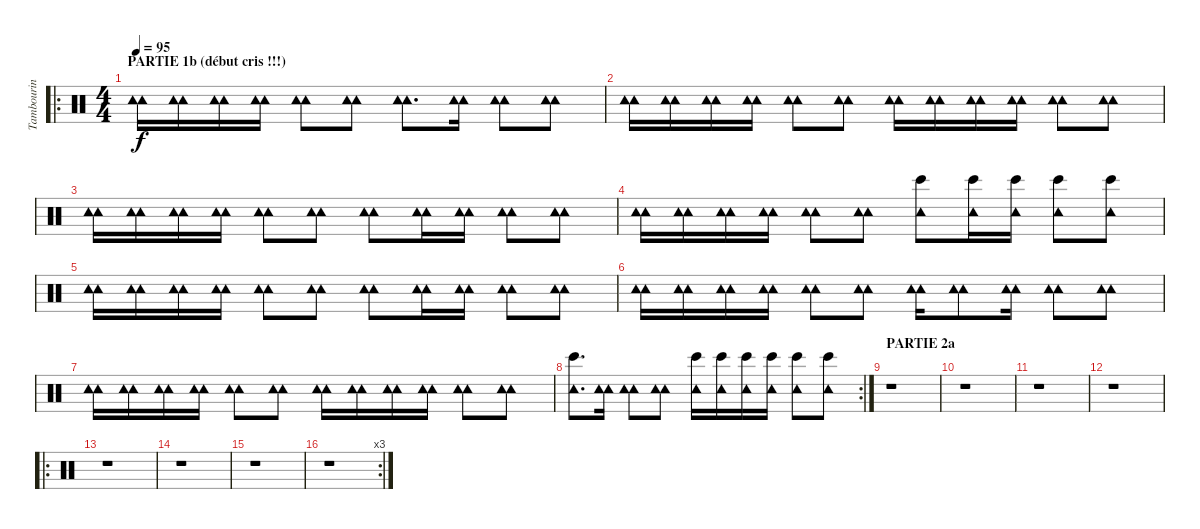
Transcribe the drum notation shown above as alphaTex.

\track ("Tambourin" "Tambourin") {instrument percussion}
\staff {score}
\articulation defaults
\ro
\ts (4 4)
\section ("" "PARTIE 1b (début cris !!!)")
\tempo 95
\clef neutral
\ks c
("Tambourine (hit)" "Tambourine (hit)").16{dy f} ("Tambourine (hit)" "Tambourine (hit)").16 ("Tambourine (hit)" "Tambourine (hit)").16 ("Tambourine (hit)" "Tambourine (hit)").16 ("Tambourine (hit)" "Tambourine (hit)").8 ("Tambourine (hit)" "Tambourine (hit)").8 ("Tambourine (hit)" "Tambourine (hit)").8{d} ("Tambourine (hit)" "Tambourine (hit)").16 ("Tambourine (hit)" "Tambourine (hit)").8 ("Tambourine (hit)" "Tambourine (hit)").8 |
("Tambourine (hit)" "Tambourine (hit)").16 ("Tambourine (hit)" "Tambourine (hit)").16 ("Tambourine (hit)" "Tambourine (hit)").16 ("Tambourine (hit)" "Tambourine (hit)").16 ("Tambourine (hit)" "Tambourine (hit)").8 ("Tambourine (hit)" "Tambourine (hit)").8 ("Tambourine (hit)" "Tambourine (hit)").16 ("Tambourine (hit)" "Tambourine (hit)").16 ("Tambourine (hit)" "Tambourine (hit)").16 ("Tambourine (hit)" "Tambourine (hit)").16 ("Tambourine (hit)" "Tambourine (hit)").8 ("Tambourine (hit)" "Tambourine (hit)").8 |
("Tambourine (hit)" "Tambourine (hit)").16 ("Tambourine (hit)" "Tambourine (hit)").16 ("Tambourine (hit)" "Tambourine (hit)").16 ("Tambourine (hit)" "Tambourine (hit)").16 ("Tambourine (hit)" "Tambourine (hit)").8 ("Tambourine (hit)" "Tambourine (hit)").8 ("Tambourine (hit)" "Tambourine (hit)").8 ("Tambourine (hit)" "Tambourine (hit)").16 ("Tambourine (hit)" "Tambourine (hit)").16 ("Tambourine (hit)" "Tambourine (hit)").8 ("Tambourine (hit)" "Tambourine (hit)").8 |
("Tambourine (hit)" "Tambourine (hit)").16 ("Tambourine (hit)" "Tambourine (hit)").16 ("Tambourine (hit)" "Tambourine (hit)").16 ("Tambourine (hit)" "Tambourine (hit)").16 ("Tambourine (hit)" "Tambourine (hit)").8 ("Tambourine (hit)" "Tambourine (hit)").8 ("Tambourine (hit)" "Bongo High (hit)").8 ("Tambourine (hit)" "Bongo High (hit)").16 ("Tambourine (hit)" "Bongo High (hit)").16 ("Tambourine (hit)" "Bongo High (hit)").8 ("Tambourine (hit)" "Bongo High (hit)").8 |
("Tambourine (hit)" "Tambourine (hit)").16 ("Tambourine (hit)" "Tambourine (hit)").16 ("Tambourine (hit)" "Tambourine (hit)").16 ("Tambourine (hit)" "Tambourine (hit)").16 ("Tambourine (hit)" "Tambourine (hit)").8 ("Tambourine (hit)" "Tambourine (hit)").8 ("Tambourine (hit)" "Tambourine (hit)").8 ("Tambourine (hit)" "Tambourine (hit)").16 ("Tambourine (hit)" "Tambourine (hit)").16 ("Tambourine (hit)" "Tambourine (hit)").8 ("Tambourine (hit)" "Tambourine (hit)").8 |
("Tambourine (hit)" "Tambourine (hit)").16 ("Tambourine (hit)" "Tambourine (hit)").16 ("Tambourine (hit)" "Tambourine (hit)").16 ("Tambourine (hit)" "Tambourine (hit)").16 ("Tambourine (hit)" "Tambourine (hit)").8 ("Tambourine (hit)" "Tambourine (hit)").8 ("Tambourine (hit)" "Tambourine (hit)").16 ("Tambourine (hit)" "Tambourine (hit)").8 ("Tambourine (hit)" "Tambourine (hit)").16 ("Tambourine (hit)" "Tambourine (hit)").8 ("Tambourine (hit)" "Tambourine (hit)").8 |
("Tambourine (hit)" "Tambourine (hit)").16 ("Tambourine (hit)" "Tambourine (hit)").16 ("Tambourine (hit)" "Tambourine (hit)").16 ("Tambourine (hit)" "Tambourine (hit)").16 ("Tambourine (hit)" "Tambourine (hit)").8 ("Tambourine (hit)" "Tambourine (hit)").8 ("Tambourine (hit)" "Tambourine (hit)").16 ("Tambourine (hit)" "Tambourine (hit)").16 ("Tambourine (hit)" "Tambourine (hit)").16 ("Tambourine (hit)" "Tambourine (hit)").16 ("Tambourine (hit)" "Tambourine (hit)").8 ("Tambourine (hit)" "Tambourine (hit)").8 |
\rc 2
("Tambourine (hit)" "Bongo High (hit)").8{d} ("Tambourine (hit)" "Tambourine (hit)").16 ("Tambourine (hit)" "Tambourine (hit)").8 ("Tambourine (hit)" "Tambourine (hit)").8 ("Tambourine (hit)" "Bongo High (hit)").16 ("Tambourine (hit)" "Bongo High (hit)").16 ("Tambourine (hit)" "Bongo High (hit)").16 ("Tambourine (hit)" "Bongo High (hit)").16 ("Tambourine (hit)" "Bongo High (hit)").8 ("Tambourine (hit)" "Bongo High (hit)").8 |
\section ("" "PARTIE 2a")
r.1 |
r.1 |
r.1 |
r.1 |
\ro
r.1 |
r.1 |
r.1 |
\rc 3
r.1
